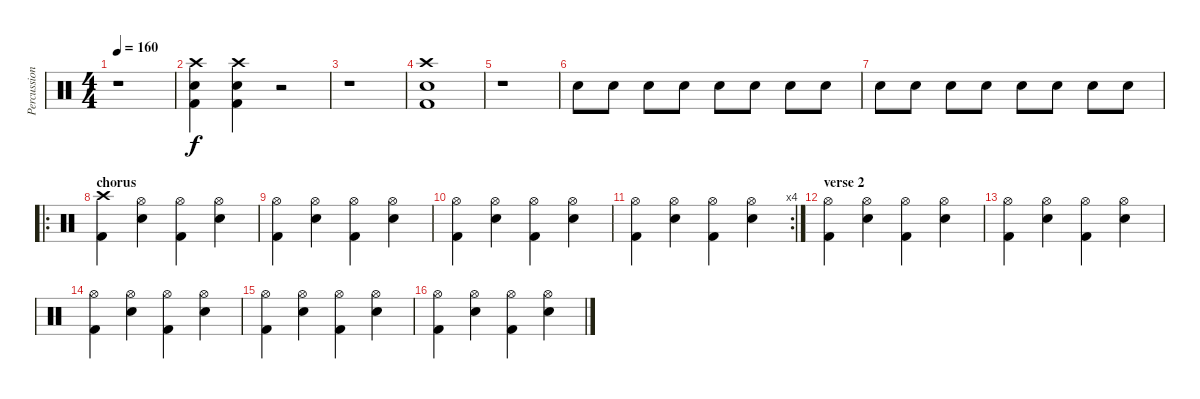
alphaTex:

\track ("Percussion" "Percussion") {instrument percussion}
\staff {score}
\articulation defaults
\ts (4 4)
\tempo 160
\clef neutral
\ks c
r.1{dy f} |
("Crash high (hit)" "Snare (hit) 2" "Kick (hit) 2").4 ("Crash high (hit)" "Snare (hit) 2" "Kick (hit) 2").4 r.2 |
r.1 |
("Crash high (hit)" "Snare (hit) 2" "Kick (hit) 2").1 |
r.1 |
"Snare (hit) 2".8{volume 6} "Snare (hit) 2".8 "Snare (hit) 2".8 "Snare (hit) 2".8 "Snare (hit) 2".8{volume 8} "Snare (hit) 2".8 "Snare (hit) 2".8 "Snare (hit) 2".8 |
"Snare (hit) 2".8{volume 10} "Snare (hit) 2".8 "Snare (hit) 2".8 "Snare (hit) 2".8 "Snare (hit) 2".8{volume 12} "Snare (hit) 2".8 "Snare (hit) 2".8 "Snare (hit) 2".8{volume 13} |
\ro
\section ("" "chorus")
("Crash high (hit)" "Kick (hit) 2").4 ("Hi-Hat (open)" "Snare (hit) 2").4 ("Hi-Hat (open)" "Kick (hit) 2").4 ("Hi-Hat (open)" "Snare (hit) 2").4 |
("Hi-Hat (open)" "Kick (hit) 2").4 ("Hi-Hat (open)" "Snare (hit) 2").4 ("Hi-Hat (open)" "Kick (hit) 2").4 ("Hi-Hat (open)" "Snare (hit) 2").4 |
("Hi-Hat (open)" "Kick (hit) 2").4 ("Hi-Hat (open)" "Snare (hit) 2").4 ("Hi-Hat (open)" "Kick (hit) 2").4 ("Hi-Hat (open)" "Snare (hit) 2").4 |
\rc 4
("Hi-Hat (open)" "Kick (hit) 2").4 ("Hi-Hat (open)" "Snare (hit) 2").4 ("Hi-Hat (open)" "Kick (hit) 2").4 ("Hi-Hat (open)" "Snare (hit) 2").4 |
\section ("" "verse 2")
("Hi-Hat (open)" "Kick (hit) 2").4 ("Hi-Hat (open)" "Snare (hit) 2").4 ("Hi-Hat (open)" "Kick (hit) 2").4 ("Hi-Hat (open)" "Snare (hit) 2").4 |
("Hi-Hat (open)" "Kick (hit) 2").4 ("Hi-Hat (open)" "Snare (hit) 2").4 ("Hi-Hat (open)" "Kick (hit) 2").4 ("Hi-Hat (open)" "Snare (hit) 2").4 |
("Hi-Hat (open)" "Kick (hit) 2").4 ("Hi-Hat (open)" "Snare (hit) 2").4 ("Hi-Hat (open)" "Kick (hit) 2").4 ("Hi-Hat (open)" "Snare (hit) 2").4 |
("Hi-Hat (open)" "Kick (hit) 2").4 ("Hi-Hat (open)" "Snare (hit) 2").4 ("Hi-Hat (open)" "Kick (hit) 2").4 ("Hi-Hat (open)" "Snare (hit) 2").4 |
("Hi-Hat (open)" "Kick (hit) 2").4 ("Hi-Hat (open)" "Snare (hit) 2").4 ("Hi-Hat (open)" "Kick (hit) 2").4 ("Hi-Hat (open)" "Snare (hit) 2").4
